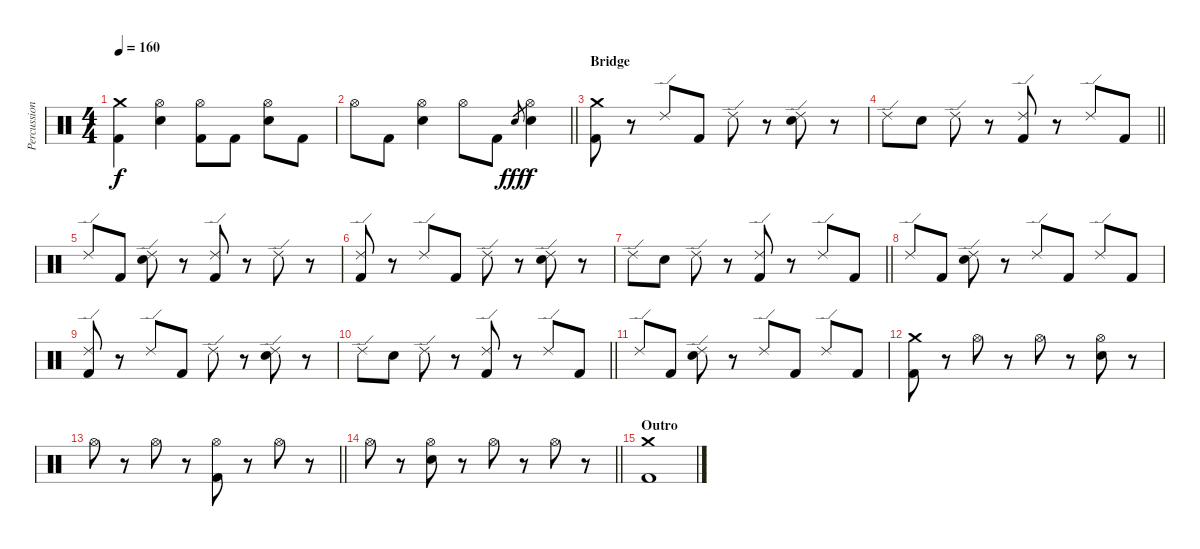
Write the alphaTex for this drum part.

\track ("Percussion" "Percussion") {instrument percussion}
\staff {score}
\articulation defaults
\ts (4 4)
\tempo 160
\clef neutral
\ks c
("Crash medium (hit)" "Kick (hit) 2").4{dy f} ("Hi-Hat (open)" "Electric Snare (hit)").4 ("Hi-Hat (open)" "Kick (hit) 2").8 "Kick (hit) 2".8 ("Hi-Hat (open)" "Electric Snare (hit)").8 "Kick (hit) 2".8 |
\barLineRight lightlight "Hi-Hat (open)".8 "Kick (hit) 2".8
("Hi-Hat (open)" "Electric Snare (hit)").4 "Hi-Hat (open)".8 "Kick (hit) 2".8 "Electric Snare (hit)".8{gr dy fff} ("Hi-Hat (open)" "Electric Snare (hit)").4{dy f} |
\section ("" "Bridge")
("Crash medium (hit)" "Kick (hit) 2").8 r.8 "Ride (edge) 2".8 "Kick (hit) 2".8 "Ride (edge) 2".8 r.8 ("Ride (edge) 2" "Electric Snare (hit)").8 r.8 |
\barLineRight lightlight "Ride (edge) 2".8 "Electric Snare (hit)".8 "Ride (edge) 2".8
r.8 ("Ride (edge) 2" "Kick (hit) 2").8 r.8 "Ride (edge) 2".8 "Kick (hit) 2".8 |
"Ride (edge) 2".8 "Kick (hit) 2".8 ("Ride (edge) 2" "Electric Snare (hit)").8 r.8 ("Ride (edge) 2" "Kick (hit) 2").8 r.8 "Ride (edge) 2".8 r.8 |
("Ride (edge) 2" "Kick (hit) 2").8 r.8 "Ride (edge) 2".8 "Kick (hit) 2".8 "Ride (edge) 2".8 r.8 ("Ride (edge) 2" "Electric Snare (hit)").8 r.8 |
\barLineRight lightlight "Ride (edge) 2".8 "Electric Snare (hit)".8 "Ride (edge) 2".8
r.8 ("Ride (edge) 2" "Kick (hit) 2").8 r.8 "Ride (edge) 2".8 "Kick (hit) 2".8 |
"Ride (edge) 2".8 "Kick (hit) 2".8 ("Ride (edge) 2" "Electric Snare (hit)").8 r.8 "Ride (edge) 2".8 "Kick (hit) 2".8 "Ride (edge) 2".8 "Kick (hit) 2".8 |
("Ride (edge) 2" "Kick (hit) 2").8 r.8 "Ride (edge) 2".8 "Kick (hit) 2".8 "Ride (edge) 2".8 r.8 ("Ride (edge) 2" "Electric Snare (hit)").8 r.8 |
\barLineRight lightlight "Ride (edge) 2".8 "Electric Snare (hit)".8 "Ride (edge) 2".8
r.8 ("Ride (edge) 2" "Kick (hit) 2").8 r.8 "Ride (edge) 2".8 "Kick (hit) 2".8 |
"Ride (edge) 2".8 "Kick (hit) 2".8 ("Ride (edge) 2" "Electric Snare (hit)").8 r.8 "Ride (edge) 2".8 "Kick (hit) 2".8 "Ride (edge) 2".8 "Kick (hit) 2".8 |
("Crash medium (hit)" "Kick (hit) 2").8 r.8 "Hi-Hat (open)".8 r.8 "Hi-Hat (open)".8 r.8 ("Hi-Hat (open)" "Electric Snare (hit)").8 r.8 |
\barLineRight lightlight "Hi-Hat (open)".8
r.8 "Hi-Hat (open)".8 r.8 ("Hi-Hat (open)" "Kick (hit) 2").8 r.8 "Hi-Hat (open)".8 r.8 |
\barLineRight lightlight "Hi-Hat (open)".8
r.8 ("Hi-Hat (open)" "Electric Snare (hit)").8 r.8 "Hi-Hat (open)".8 r.8 "Hi-Hat (open)".8 r.8 |
\section ("" "Outro")
("Kick (hit) 2" "Crash medium (hit)").1
